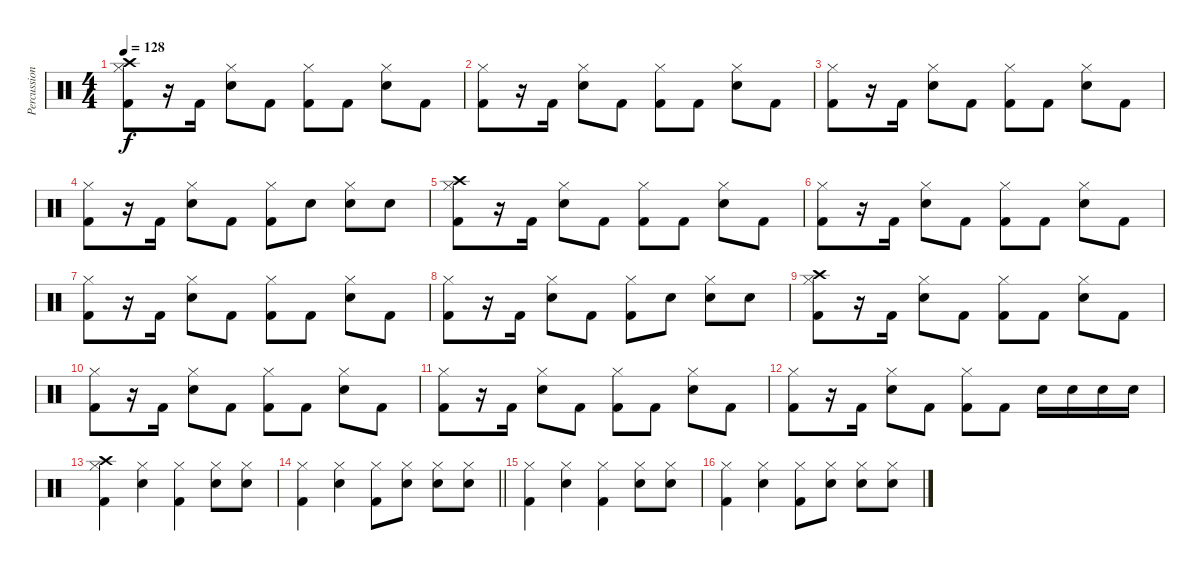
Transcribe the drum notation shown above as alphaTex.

\track ("Percussion" "Percussion") {instrument percussion}
\staff {score}
\articulation defaults
\ts (4 4)
\tempo 128
\clef neutral
\ks c
("Crash high (hit)" "Hi-Hat (closed)" "Kick (hit) 2").8{dy f} r.16 "Kick (hit) 2".16 ("Hi-Hat (closed)" "Snare (hit) 2").8 "Kick (hit) 2".8 ("Hi-Hat (closed)" "Kick (hit) 2").8 "Kick (hit) 2".8 ("Hi-Hat (closed)" "Snare (hit) 2").8 "Kick (hit) 2".8 |
("Hi-Hat (closed)" "Kick (hit) 2").8 r.16 "Kick (hit) 2".16 ("Hi-Hat (closed)" "Snare (hit) 2").8 "Kick (hit) 2".8 ("Hi-Hat (closed)" "Kick (hit) 2").8 "Kick (hit) 2".8 ("Hi-Hat (closed)" "Snare (hit) 2").8 "Kick (hit) 2".8 |
("Hi-Hat (closed)" "Kick (hit) 2").8 r.16 "Kick (hit) 2".16 ("Hi-Hat (closed)" "Snare (hit) 2").8 "Kick (hit) 2".8 ("Hi-Hat (closed)" "Kick (hit) 2").8 "Kick (hit) 2".8 ("Hi-Hat (closed)" "Snare (hit) 2").8 "Kick (hit) 2".8 |
("Hi-Hat (closed)" "Kick (hit) 2").8 r.16 "Kick (hit) 2".16 ("Hi-Hat (closed)" "Snare (hit) 2").8 "Kick (hit) 2".8 ("Hi-Hat (closed)" "Kick (hit) 2").8 "Snare (hit) 2".8 ("Hi-Hat (closed)" "Snare (hit) 2").8 "Snare (hit) 2".8 |
("Crash high (hit)" "Hi-Hat (closed)" "Kick (hit) 2").8 r.16 "Kick (hit) 2".16 ("Hi-Hat (closed)" "Snare (hit) 2").8 "Kick (hit) 2".8 ("Hi-Hat (closed)" "Kick (hit) 2").8 "Kick (hit) 2".8 ("Hi-Hat (closed)" "Snare (hit) 2").8 "Kick (hit) 2".8 |
("Hi-Hat (closed)" "Kick (hit) 2").8 r.16 "Kick (hit) 2".16 ("Hi-Hat (closed)" "Snare (hit) 2").8 "Kick (hit) 2".8 ("Hi-Hat (closed)" "Kick (hit) 2").8 "Kick (hit) 2".8 ("Hi-Hat (closed)" "Snare (hit) 2").8 "Kick (hit) 2".8 |
("Hi-Hat (closed)" "Kick (hit) 2").8 r.16 "Kick (hit) 2".16 ("Hi-Hat (closed)" "Snare (hit) 2").8 "Kick (hit) 2".8 ("Hi-Hat (closed)" "Kick (hit) 2").8 "Kick (hit) 2".8 ("Hi-Hat (closed)" "Snare (hit) 2").8 "Kick (hit) 2".8 |
("Hi-Hat (closed)" "Kick (hit) 2").8 r.16 "Kick (hit) 2".16 ("Hi-Hat (closed)" "Snare (hit) 2").8 "Kick (hit) 2".8 ("Hi-Hat (closed)" "Kick (hit) 2").8 "Snare (hit) 2".8 ("Hi-Hat (closed)" "Snare (hit) 2").8 "Snare (hit) 2".8 |
("Crash high (hit)" "Hi-Hat (closed)" "Kick (hit) 2").8 r.16 "Kick (hit) 2".16 ("Hi-Hat (closed)" "Snare (hit) 2").8 "Kick (hit) 2".8 ("Hi-Hat (closed)" "Kick (hit) 2").8 "Kick (hit) 2".8 ("Hi-Hat (closed)" "Snare (hit) 2").8 "Kick (hit) 2".8 |
("Hi-Hat (closed)" "Kick (hit) 2").8 r.16 "Kick (hit) 2".16 ("Hi-Hat (closed)" "Snare (hit) 2").8 "Kick (hit) 2".8 ("Hi-Hat (closed)" "Kick (hit) 2").8 "Kick (hit) 2".8 ("Hi-Hat (closed)" "Snare (hit) 2").8 "Kick (hit) 2".8 |
("Hi-Hat (closed)" "Kick (hit) 2").8 r.16 "Kick (hit) 2".16 ("Hi-Hat (closed)" "Snare (hit) 2").8 "Kick (hit) 2".8 ("Hi-Hat (closed)" "Kick (hit) 2").8 "Kick (hit) 2".8 ("Hi-Hat (closed)" "Snare (hit) 2").8 "Kick (hit) 2".8 |
("Hi-Hat (closed)" "Kick (hit) 2").8 r.16 "Kick (hit) 2".16 ("Hi-Hat (closed)" "Snare (hit) 2").8 "Kick (hit) 2".8 ("Kick (hit) 2" "Hi-Hat (closed)").8 "Kick (hit) 2".8 "Snare (hit) 2".16 "Snare (hit) 2".16 "Snare (hit) 2".16 "Snare (hit) 2".16 |
("Crash high (hit)" "Hi-Hat (closed)" "Kick (hit) 2").4 ("Hi-Hat (closed)" "Snare (hit) 2").4 ("Hi-Hat (closed)" "Kick (hit) 2").4 ("Hi-Hat (closed)" "Snare (hit) 2").8 ("Hi-Hat (closed)" "Snare (hit) 2").8 |
\barLineRight lightlight
("Hi-Hat (closed)" "Kick (hit) 2").4 ("Hi-Hat (closed)" "Snare (hit) 2").4 ("Hi-Hat (closed)" "Kick (hit) 2").8 ("Hi-Hat (closed)" "Snare (hit) 2").8 ("Hi-Hat (closed)" "Snare (hit) 2").8 ("Hi-Hat (closed)" "Snare (hit) 2").8 |
("Hi-Hat (closed)" "Kick (hit) 2").4 ("Hi-Hat (closed)" "Snare (hit) 2").4 ("Hi-Hat (closed)" "Kick (hit) 2").4 ("Hi-Hat (closed)" "Snare (hit) 2").8 ("Hi-Hat (closed)" "Snare (hit) 2").8 |
("Hi-Hat (closed)" "Kick (hit) 2").4 ("Hi-Hat (closed)" "Snare (hit) 2").4 ("Hi-Hat (closed)" "Kick (hit) 2").8 ("Hi-Hat (closed)" "Snare (hit) 2").8 ("Hi-Hat (closed)" "Snare (hit) 2").8 ("Hi-Hat (closed)" "Snare (hit) 2").8
